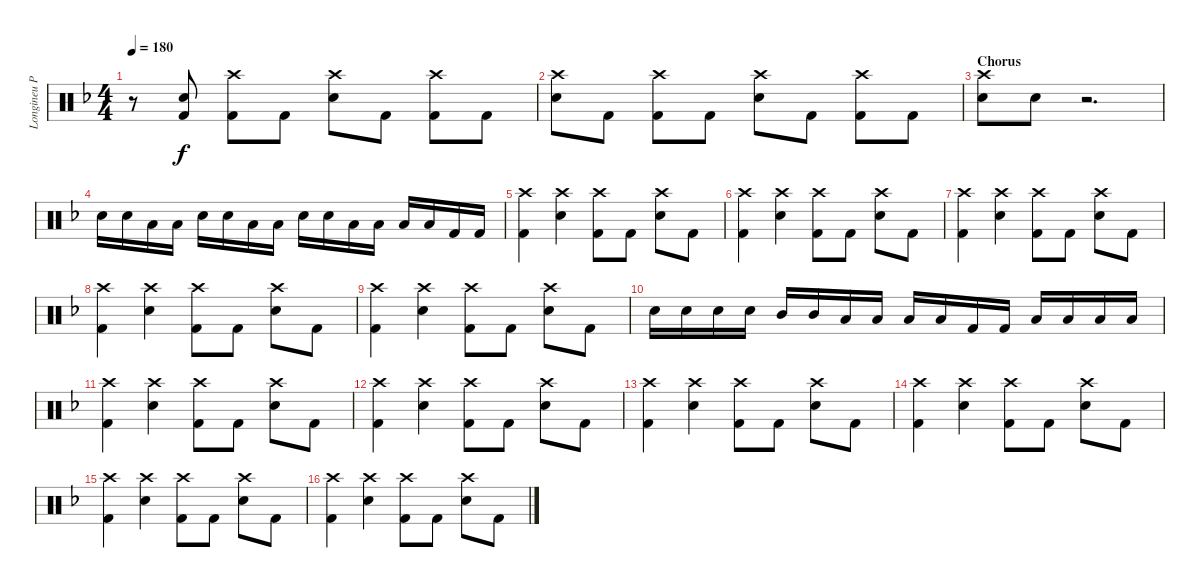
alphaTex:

\track ("Longineu Parsons III (Drums 1)" "Longineu P") {instrument percussion}
\staff {score}
\articulation defaults
\ts (4 4)
\tempo 180
\clef neutral
\ks f
r.8{dy f} ("Kick (hit) 2" "Snare (hit) 2").8 ("Kick (hit) 2" "Crash high (hit)").8 "Kick (hit) 2".8 ("Snare (hit) 2" "Crash high (hit)").8 "Kick (hit) 2".8 ("Kick (hit) 2" "Crash high (hit)").8 "Kick (hit) 2".8 |
("Snare (hit) 2" "Crash high (hit)").8 "Kick (hit) 2".8 ("Crash high (hit)" "Kick (hit) 2").8 "Kick (hit) 2".8 ("Crash high (hit)" "Snare (hit) 2").8 "Kick (hit) 2".8 ("Crash high (hit)" "Kick (hit) 2").8 "Kick (hit) 2".8 |
\section ("" "Chorus")
("Crash high (hit)" "Snare (hit) 2").8 "Snare (hit) 2".8 r.2{d} |
"Snare (hit) 2".16 "Snare (hit) 2".16 "Low Tom (hit)".16 "Low Tom (hit)".16 "Snare (hit) 2".16 "Snare (hit) 2".16 "Low Tom (hit)".16 "Low Tom (hit)".16 "Snare (hit) 2".16 "Snare (hit) 2".16 "Low Tom (hit)".16 "Low Tom (hit)".16 "Low Floor Tom (hit)".16 "Low Floor Tom (hit)".16 "Kick (hit) 2".16 "Kick (hit) 2".16 |
("Kick (hit) 2" "Crash high (hit)").4 ("Snare (hit) 2" "Crash high (hit)").4 ("Crash high (hit)" "Kick (hit) 2").8 "Kick (hit) 2".8 ("Crash high (hit)" "Snare (hit) 2").8 "Kick (hit) 2".8 |
("Kick (hit) 2" "Crash high (hit)").4 ("Snare (hit) 2" "Crash high (hit)").4 ("Crash high (hit)" "Kick (hit) 2").8 "Kick (hit) 2".8 ("Crash high (hit)" "Snare (hit) 2").8 "Kick (hit) 2".8 |
("Kick (hit) 2" "Crash high (hit)").4 ("Snare (hit) 2" "Crash high (hit)").4 ("Crash high (hit)" "Kick (hit) 2").8 "Kick (hit) 2".8 ("Crash high (hit)" "Snare (hit) 2").8 "Kick (hit) 2".8 |
("Kick (hit) 2" "Crash high (hit)").4 ("Snare (hit) 2" "Crash high (hit)").4 ("Crash high (hit)" "Kick (hit) 2").8 "Kick (hit) 2".8 ("Crash high (hit)" "Snare (hit) 2").8 "Kick (hit) 2".8 |
("Kick (hit) 2" "Crash high (hit)").4 ("Snare (hit) 2" "Crash high (hit)").4 ("Crash high (hit)" "Kick (hit) 2").8 "Kick (hit) 2".8 ("Crash high (hit)" "Snare (hit) 2").8 "Kick (hit) 2".8 |
"Snare (hit) 2".16 "Snare (hit) 2".16 "Snare (hit) 2".16 "Snare (hit) 2".16 "Mid Tom (hit)".16 "Mid Tom (hit)".16 "Low Tom (hit)".16 "Low Tom (hit)".16 "Low Floor Tom (hit)".16 "Low Floor Tom (hit)".16 "Kick (hit) 2".16 "Kick (hit) 2".16 "Low Tom (hit)".16 "Low Tom (hit)".16 "Low Floor Tom (hit)".16 "Low Floor Tom (hit)".16 |
("Kick (hit) 2" "Crash high (hit)").4 ("Snare (hit) 2" "Crash high (hit)").4 ("Crash high (hit)" "Kick (hit) 2").8 "Kick (hit) 2".8 ("Crash high (hit)" "Snare (hit) 2").8 "Kick (hit) 2".8 |
("Kick (hit) 2" "Crash high (hit)").4 ("Snare (hit) 2" "Crash high (hit)").4 ("Crash high (hit)" "Kick (hit) 2").8 "Kick (hit) 2".8 ("Crash high (hit)" "Snare (hit) 2").8 "Kick (hit) 2".8 |
("Kick (hit) 2" "Crash high (hit)").4 ("Snare (hit) 2" "Crash high (hit)").4 ("Crash high (hit)" "Kick (hit) 2").8 "Kick (hit) 2".8 ("Crash high (hit)" "Snare (hit) 2").8 "Kick (hit) 2".8 |
("Kick (hit) 2" "Crash high (hit)").4 ("Snare (hit) 2" "Crash high (hit)").4 ("Crash high (hit)" "Kick (hit) 2").8 "Kick (hit) 2".8 ("Crash high (hit)" "Snare (hit) 2").8 "Kick (hit) 2".8 |
("Kick (hit) 2" "Crash high (hit)").4 ("Snare (hit) 2" "Crash high (hit)").4 ("Crash high (hit)" "Kick (hit) 2").8 "Kick (hit) 2".8 ("Crash high (hit)" "Snare (hit) 2").8 "Kick (hit) 2".8 |
("Kick (hit) 2" "Crash high (hit)").4 ("Snare (hit) 2" "Crash high (hit)").4 ("Crash high (hit)" "Kick (hit) 2").8 "Kick (hit) 2".8 ("Crash high (hit)" "Snare (hit) 2").8 "Kick (hit) 2".8
